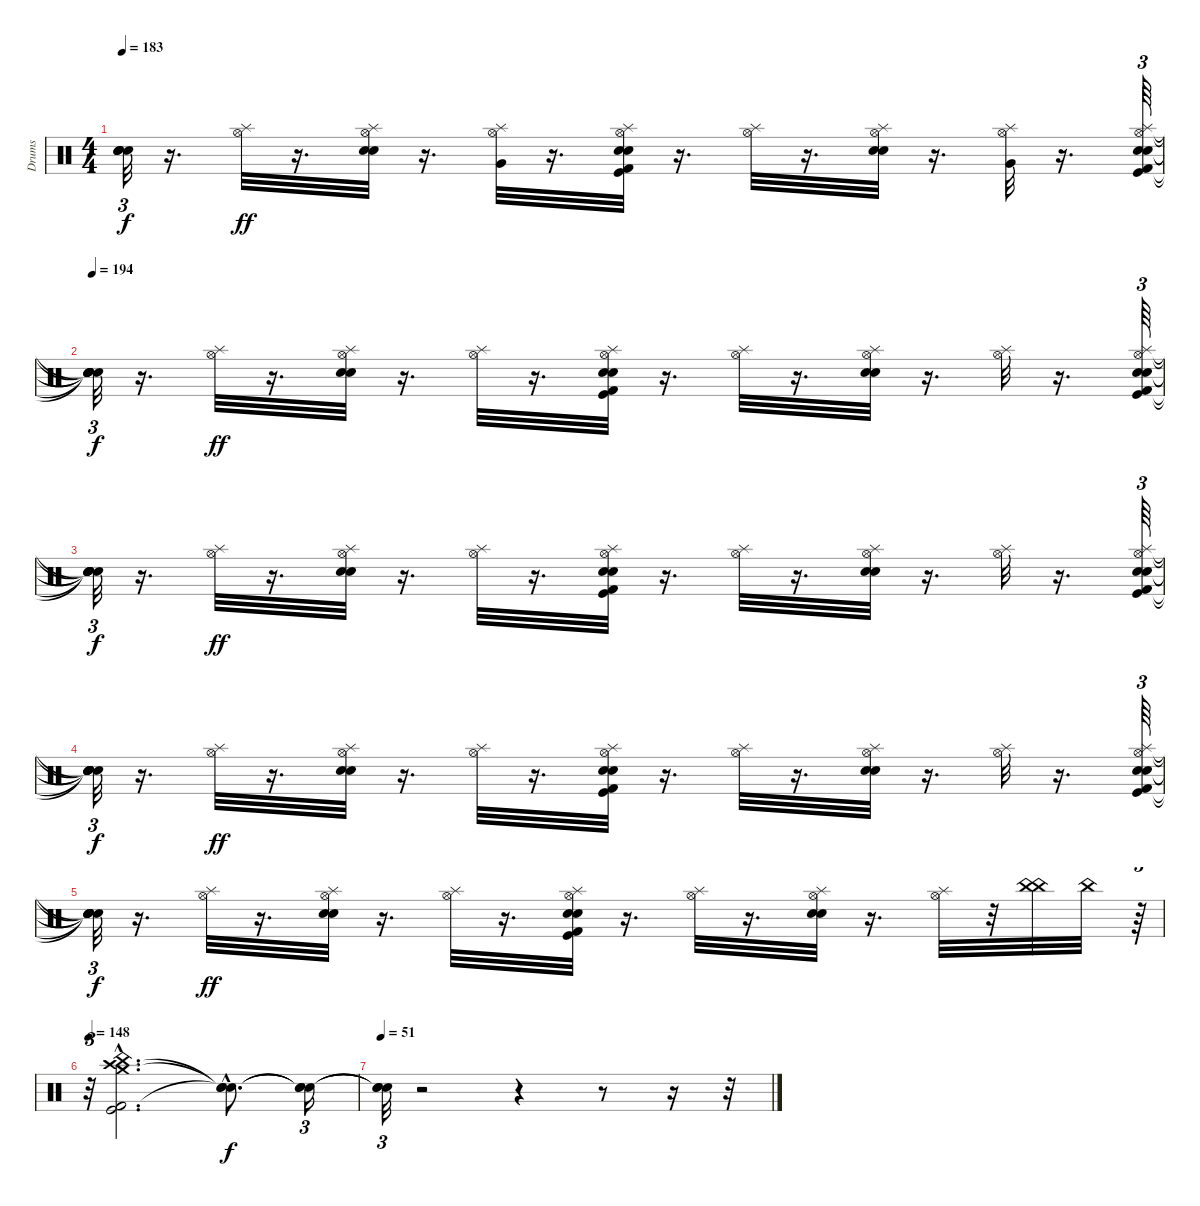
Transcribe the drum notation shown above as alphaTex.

\track ("Drums" "Drums") {instrument percussion}
\staff {score}
\articulation defaults
\ts (4 4)
\tempo 183
\clef neutral
\ks c
("Snare (hit)"{t} "Snare (hit)"{t} "Snare (hit)"{t} "Snare (hit)"{t}).32{tu (3 2) dy f} r.16{d} ("Hi-Hat (open)" "Splash (hit)").32{dy ff volume 15} r.16{d} ("Snare (hit) 2" "Splash (hit)" "Hi-Hat (open)" "Electric Snare (hit)").32 r.16{d} ("Hi-Hat (open)" "Splash (hit)" "Very Low Tom (hit)").32{volume 15} r.16{d} ("Snare (hit) 2" "Kick (hit) 2" "Kick (hit)" "Electric Snare (hit)" "Hi-Hat (open)" "Splash (hit)").32 r.16{d} ("Splash (hit)" "Hi-Hat (open)").32{volume 15} r.16{d} ("Splash (hit)" "Hi-Hat (open)" "Snare (hit) 2" "Electric Snare (hit)").32{volume 15} r.16{d} ("Very Low Tom (hit)" "Hi-Hat (open)" "Splash (hit)").32{volume 15} r.16{d} ("Hi-Hat (open)" "Kick (hit)" "Snare (hit) 2" "Kick (hit) 2" "Electric Snare (hit)" "Splash (hit)").64{tu (3 2) volume 15} |
\tempo 194
("Snare (hit)"{t} "Snare (hit)"{t} "Snare (hit)"{t} "Snare (hit)"{t} "Snare (hit)"{t} "Snare (hit)"{t}).32{tu (3 2) dy f} r.16{d} ("Splash (hit)" "Hi-Hat (open)").32{dy ff} r.16{d} ("Hi-Hat (open)" "Snare (hit) 2" "Electric Snare (hit)" "Splash (hit)").32{volume 16} r.16{d} ("Splash (hit)" "Hi-Hat (open)").32{volume 16} r.16{d} ("Splash (hit)" "Electric Snare (hit)" "Hi-Hat (open)" "Kick (hit)" "Snare (hit) 2" "Kick (hit) 2").32{volume 16} r.16{d} ("Hi-Hat (open)" "Splash (hit)").32{volume 16} r.16{d} ("Snare (hit) 2" "Splash (hit)" "Hi-Hat (open)" "Electric Snare (hit)").32 r.16{d} ("Hi-Hat (open)" "Splash (hit)").32 r.16{d} ("Kick (hit) 2" "Electric Snare (hit)" "Splash (hit)" "Snare (hit) 2" "Hi-Hat (open)" "Kick (hit)").64{tu (3 2)} |
("Snare (hit)"{t} "Snare (hit)"{t} "Snare (hit)"{t} "Snare (hit)"{t} "Snare (hit)"{t} "Snare (hit)"{t}).32{tu (3 2) dy f} r.16{d} ("Splash (hit)" "Hi-Hat (open)").32{dy ff} r.16{d} ("Hi-Hat (open)" "Splash (hit)" "Electric Snare (hit)" "Snare (hit) 2").32 r.16{d} ("Splash (hit)" "Hi-Hat (open)").32 r.16{d} ("Hi-Hat (open)" "Kick (hit)" "Electric Snare (hit)" "Snare (hit) 2" "Kick (hit) 2" "Splash (hit)").32 r.16{d} ("Splash (hit)" "Hi-Hat (open)").32 r.16{d} ("Electric Snare (hit)" "Snare (hit) 2" "Hi-Hat (open)" "Splash (hit)").32 r.16{d} ("Splash (hit)" "Hi-Hat (open)").32 r.16{d} ("Kick (hit)" "Hi-Hat (open)" "Splash (hit)" "Electric Snare (hit)" "Snare (hit) 2" "Kick (hit) 2").64{tu (3 2)} |
("Snare (hit)"{t} "Snare (hit)"{t} "Snare (hit)"{t} "Snare (hit)"{t} "Snare (hit)"{t} "Snare (hit)"{t}).32{tu (3 2) dy f} r.16{d} ("Splash (hit)" "Hi-Hat (open)").32{dy ff} r.16{d} ("Snare (hit) 2" "Electric Snare (hit)" "Splash (hit)" "Hi-Hat (open)").32 r.16{d} ("Hi-Hat (open)" "Splash (hit)").32 r.16{d} ("Electric Snare (hit)" "Splash (hit)" "Kick (hit)" "Kick (hit) 2" "Snare (hit) 2" "Hi-Hat (open)").32 r.16{d} ("Hi-Hat (open)" "Splash (hit)").32 r.16{d} ("Snare (hit) 2" "Hi-Hat (open)" "Electric Snare (hit)" "Splash (hit)").32 r.16{d} ("Splash (hit)" "Hi-Hat (open)").32 r.16{d} ("Splash (hit)" "Snare (hit) 2" "Hi-Hat (open)" "Kick (hit) 2" "Kick (hit)" "Electric Snare (hit)").64{tu (3 2)} |
("Snare (hit)"{t} "Snare (hit)"{t} "Snare (hit)"{t} "Snare (hit)"{t} "Snare (hit)"{t} "Snare (hit)"{t}).32{tu (3 2) dy f} r.16{d} ("Splash (hit)" "Hi-Hat (open)").32{dy ff} r.16{d} ("Hi-Hat (open)" "Electric Snare (hit)" "Splash (hit)" "Snare (hit) 2").32 r.16{d} ("Splash (hit)" "Hi-Hat (open)").32 r.16{d} ("Splash (hit)" "Snare (hit) 2" "Kick (hit) 2" "Electric Snare (hit)" "Kick (hit)" "Hi-Hat (open)").32 r.16{d} ("Splash (hit)" "Hi-Hat (open)").32 r.16{d} ("Splash (hit)" "Hi-Hat (open)" "Snare (hit) 2" "Electric Snare (hit)").32 r.16{d} ("Splash (hit)" "Hi-Hat (open)").32 r.32 ("China (hit)" "China (hit)").32 "China (hit)".32 r.64{tu (3 2)} |
\tempo 148
r.32{tu (3 2)} ("Crash high (hit)"{hac} "Kick (hit) 2" "Crash medium (hit)"{hac} "China (hit)"{hac} "Kick (hit)").2{d} ("Snare (hit)"{hac t} "Snare (hit)"{hac t} "Snare (hit)"{hac t}).8{d dy f} ("Snare (hit)"{t} "Snare (hit)"{t} "Snare (hit)"{t}).16{tu (3 2)} |
\tempo 51
("Snare (hit)"{t} "Snare (hit)"{t} "Snare (hit)"{t}).32{tu (3 2)} r.2 r.4 r.8 r.16 r.32
